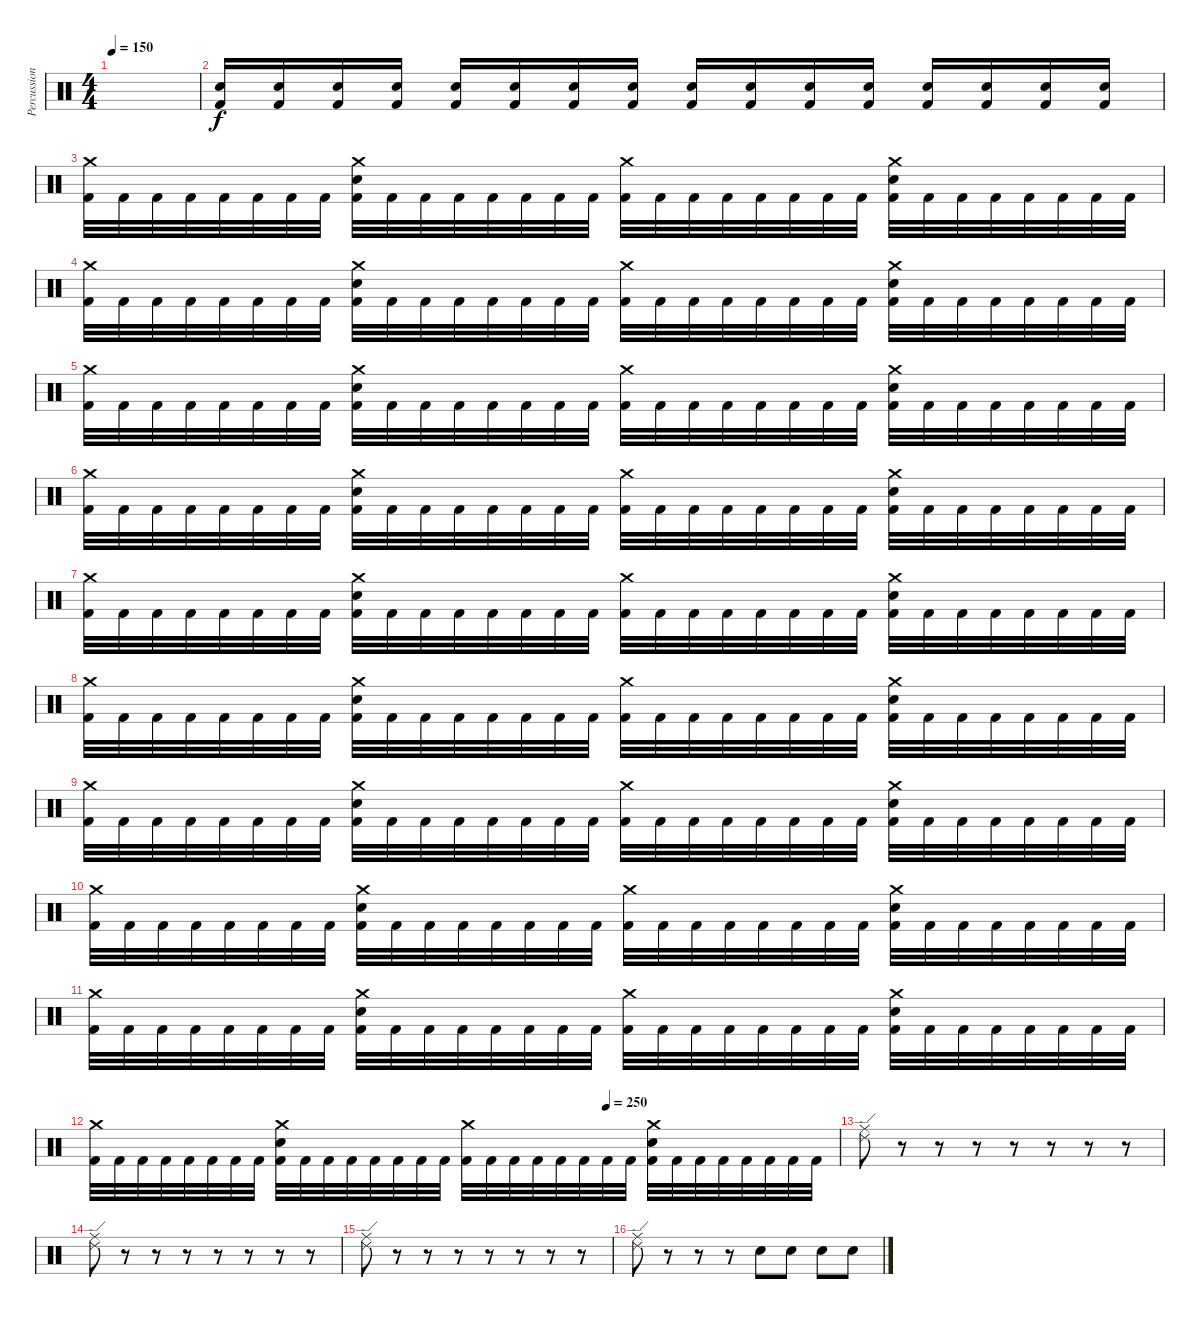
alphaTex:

\track ("Percussions" "Percussion") {instrument percussion}
\staff {score}
\articulation defaults
\ts (4 4)
\tempo 150
\clef neutral
\ks c
|
("Electric Snare (hit)" "Kick (hit) 2").16 ("Electric Snare (hit)" "Kick (hit) 2").16 ("Electric Snare (hit)" "Kick (hit) 2").16 ("Electric Snare (hit)" "Kick (hit) 2").16 ("Electric Snare (hit)" "Kick (hit) 2").16 ("Electric Snare (hit)" "Kick (hit) 2").16 ("Electric Snare (hit)" "Kick (hit) 2").16 ("Electric Snare (hit)" "Kick (hit) 2").16 ("Electric Snare (hit)" "Kick (hit) 2").16 ("Electric Snare (hit)" "Kick (hit) 2").16 ("Electric Snare (hit)" "Kick (hit) 2").16 ("Electric Snare (hit)" "Kick (hit) 2").16 ("Electric Snare (hit)" "Kick (hit) 2").16 ("Electric Snare (hit)" "Kick (hit) 2").16 ("Electric Snare (hit)" "Kick (hit) 2").16 ("Electric Snare (hit)" "Kick (hit) 2").16 |
("Crash medium (hit)" "Kick (hit) 2").32 "Kick (hit) 2".32 "Kick (hit) 2".32 "Kick (hit) 2".32 "Kick (hit) 2".32 "Kick (hit) 2".32 "Kick (hit) 2".32 "Kick (hit) 2".32 ("Electric Snare (hit)" "Crash medium (hit)" "Kick (hit) 2").32 "Kick (hit) 2".32 "Kick (hit) 2".32 "Kick (hit) 2".32 "Kick (hit) 2".32 "Kick (hit) 2".32 "Kick (hit) 2".32 "Kick (hit) 2".32 ("Crash medium (hit)" "Kick (hit) 2").32 "Kick (hit) 2".32 "Kick (hit) 2".32 "Kick (hit) 2".32 "Kick (hit) 2".32 "Kick (hit) 2".32 "Kick (hit) 2".32 "Kick (hit) 2".32 ("Electric Snare (hit)" "Crash medium (hit)" "Kick (hit) 2").32 "Kick (hit) 2".32 "Kick (hit) 2".32 "Kick (hit) 2".32 "Kick (hit) 2".32 "Kick (hit) 2".32 "Kick (hit) 2".32 "Kick (hit) 2".32 |
("Crash medium (hit)" "Kick (hit) 2").32 "Kick (hit) 2".32 "Kick (hit) 2".32 "Kick (hit) 2".32 "Kick (hit) 2".32 "Kick (hit) 2".32 "Kick (hit) 2".32 "Kick (hit) 2".32 ("Electric Snare (hit)" "Crash medium (hit)" "Kick (hit) 2").32 "Kick (hit) 2".32 "Kick (hit) 2".32 "Kick (hit) 2".32 "Kick (hit) 2".32 "Kick (hit) 2".32 "Kick (hit) 2".32 "Kick (hit) 2".32 ("Crash medium (hit)" "Kick (hit) 2").32 "Kick (hit) 2".32 "Kick (hit) 2".32 "Kick (hit) 2".32 "Kick (hit) 2".32 "Kick (hit) 2".32 "Kick (hit) 2".32 "Kick (hit) 2".32 ("Electric Snare (hit)" "Crash medium (hit)" "Kick (hit) 2").32 "Kick (hit) 2".32 "Kick (hit) 2".32 "Kick (hit) 2".32 "Kick (hit) 2".32 "Kick (hit) 2".32 "Kick (hit) 2".32 "Kick (hit) 2".32 |
("Crash medium (hit)" "Kick (hit) 2").32 "Kick (hit) 2".32 "Kick (hit) 2".32 "Kick (hit) 2".32 "Kick (hit) 2".32 "Kick (hit) 2".32 "Kick (hit) 2".32 "Kick (hit) 2".32 ("Electric Snare (hit)" "Crash medium (hit)" "Kick (hit) 2").32 "Kick (hit) 2".32 "Kick (hit) 2".32 "Kick (hit) 2".32 "Kick (hit) 2".32 "Kick (hit) 2".32 "Kick (hit) 2".32 "Kick (hit) 2".32 ("Crash medium (hit)" "Kick (hit) 2").32 "Kick (hit) 2".32 "Kick (hit) 2".32 "Kick (hit) 2".32 "Kick (hit) 2".32 "Kick (hit) 2".32 "Kick (hit) 2".32 "Kick (hit) 2".32 ("Electric Snare (hit)" "Crash medium (hit)" "Kick (hit) 2").32 "Kick (hit) 2".32 "Kick (hit) 2".32 "Kick (hit) 2".32 "Kick (hit) 2".32 "Kick (hit) 2".32 "Kick (hit) 2".32 "Kick (hit) 2".32 |
("Crash medium (hit)" "Kick (hit) 2").32 "Kick (hit) 2".32 "Kick (hit) 2".32 "Kick (hit) 2".32 "Kick (hit) 2".32 "Kick (hit) 2".32 "Kick (hit) 2".32 "Kick (hit) 2".32 ("Electric Snare (hit)" "Crash medium (hit)" "Kick (hit) 2").32 "Kick (hit) 2".32 "Kick (hit) 2".32 "Kick (hit) 2".32 "Kick (hit) 2".32 "Kick (hit) 2".32 "Kick (hit) 2".32 "Kick (hit) 2".32 ("Crash medium (hit)" "Kick (hit) 2").32 "Kick (hit) 2".32 "Kick (hit) 2".32 "Kick (hit) 2".32 "Kick (hit) 2".32 "Kick (hit) 2".32 "Kick (hit) 2".32 "Kick (hit) 2".32 ("Electric Snare (hit)" "Crash medium (hit)" "Kick (hit) 2").32 "Kick (hit) 2".32 "Kick (hit) 2".32 "Kick (hit) 2".32 "Kick (hit) 2".32 "Kick (hit) 2".32 "Kick (hit) 2".32 "Kick (hit) 2".32 |
("Crash medium (hit)" "Kick (hit) 2").32 "Kick (hit) 2".32 "Kick (hit) 2".32 "Kick (hit) 2".32 "Kick (hit) 2".32 "Kick (hit) 2".32 "Kick (hit) 2".32 "Kick (hit) 2".32 ("Electric Snare (hit)" "Crash medium (hit)" "Kick (hit) 2").32 "Kick (hit) 2".32 "Kick (hit) 2".32 "Kick (hit) 2".32 "Kick (hit) 2".32 "Kick (hit) 2".32 "Kick (hit) 2".32 "Kick (hit) 2".32 ("Crash medium (hit)" "Kick (hit) 2").32 "Kick (hit) 2".32 "Kick (hit) 2".32 "Kick (hit) 2".32 "Kick (hit) 2".32 "Kick (hit) 2".32 "Kick (hit) 2".32 "Kick (hit) 2".32 ("Electric Snare (hit)" "Crash medium (hit)" "Kick (hit) 2").32 "Kick (hit) 2".32 "Kick (hit) 2".32 "Kick (hit) 2".32 "Kick (hit) 2".32 "Kick (hit) 2".32 "Kick (hit) 2".32 "Kick (hit) 2".32 |
("Crash medium (hit)" "Kick (hit) 2").32 "Kick (hit) 2".32 "Kick (hit) 2".32 "Kick (hit) 2".32 "Kick (hit) 2".32 "Kick (hit) 2".32 "Kick (hit) 2".32 "Kick (hit) 2".32 ("Electric Snare (hit)" "Crash medium (hit)" "Kick (hit) 2").32 "Kick (hit) 2".32 "Kick (hit) 2".32 "Kick (hit) 2".32 "Kick (hit) 2".32 "Kick (hit) 2".32 "Kick (hit) 2".32 "Kick (hit) 2".32 ("Crash medium (hit)" "Kick (hit) 2").32 "Kick (hit) 2".32 "Kick (hit) 2".32 "Kick (hit) 2".32 "Kick (hit) 2".32 "Kick (hit) 2".32 "Kick (hit) 2".32 "Kick (hit) 2".32 ("Electric Snare (hit)" "Crash medium (hit)" "Kick (hit) 2").32 "Kick (hit) 2".32 "Kick (hit) 2".32 "Kick (hit) 2".32 "Kick (hit) 2".32 "Kick (hit) 2".32 "Kick (hit) 2".32 "Kick (hit) 2".32 |
("Crash medium (hit)" "Kick (hit) 2").32 "Kick (hit) 2".32 "Kick (hit) 2".32 "Kick (hit) 2".32 "Kick (hit) 2".32 "Kick (hit) 2".32 "Kick (hit) 2".32 "Kick (hit) 2".32 ("Electric Snare (hit)" "Crash medium (hit)" "Kick (hit) 2").32 "Kick (hit) 2".32 "Kick (hit) 2".32 "Kick (hit) 2".32 "Kick (hit) 2".32 "Kick (hit) 2".32 "Kick (hit) 2".32 "Kick (hit) 2".32 ("Crash medium (hit)" "Kick (hit) 2").32 "Kick (hit) 2".32 "Kick (hit) 2".32 "Kick (hit) 2".32 "Kick (hit) 2".32 "Kick (hit) 2".32 "Kick (hit) 2".32 "Kick (hit) 2".32 ("Electric Snare (hit)" "Crash medium (hit)" "Kick (hit) 2").32 "Kick (hit) 2".32 "Kick (hit) 2".32 "Kick (hit) 2".32 "Kick (hit) 2".32 "Kick (hit) 2".32 "Kick (hit) 2".32 "Kick (hit) 2".32 |
("Crash medium (hit)" "Kick (hit) 2").32 "Kick (hit) 2".32 "Kick (hit) 2".32 "Kick (hit) 2".32 "Kick (hit) 2".32 "Kick (hit) 2".32 "Kick (hit) 2".32 "Kick (hit) 2".32 ("Electric Snare (hit)" "Crash medium (hit)" "Kick (hit) 2").32 "Kick (hit) 2".32 "Kick (hit) 2".32 "Kick (hit) 2".32 "Kick (hit) 2".32 "Kick (hit) 2".32 "Kick (hit) 2".32 "Kick (hit) 2".32 ("Crash medium (hit)" "Kick (hit) 2").32 "Kick (hit) 2".32 "Kick (hit) 2".32 "Kick (hit) 2".32 "Kick (hit) 2".32 "Kick (hit) 2".32 "Kick (hit) 2".32 "Kick (hit) 2".32 ("Electric Snare (hit)" "Crash medium (hit)" "Kick (hit) 2").32 "Kick (hit) 2".32 "Kick (hit) 2".32 "Kick (hit) 2".32 "Kick (hit) 2".32 "Kick (hit) 2".32 "Kick (hit) 2".32 "Kick (hit) 2".32 |
("Crash medium (hit)" "Kick (hit) 2").32 "Kick (hit) 2".32 "Kick (hit) 2".32 "Kick (hit) 2".32 "Kick (hit) 2".32 "Kick (hit) 2".32 "Kick (hit) 2".32 "Kick (hit) 2".32 ("Electric Snare (hit)" "Crash medium (hit)" "Kick (hit) 2").32 "Kick (hit) 2".32 "Kick (hit) 2".32 "Kick (hit) 2".32 "Kick (hit) 2".32 "Kick (hit) 2".32 "Kick (hit) 2".32 "Kick (hit) 2".32 ("Crash medium (hit)" "Kick (hit) 2").32 "Kick (hit) 2".32 "Kick (hit) 2".32 "Kick (hit) 2".32 "Kick (hit) 2".32 "Kick (hit) 2".32 "Kick (hit) 2".32 "Kick (hit) 2".32 ("Electric Snare (hit)" "Crash medium (hit)" "Kick (hit) 2").32 "Kick (hit) 2".32 "Kick (hit) 2".32 "Kick (hit) 2".32 "Kick (hit) 2".32 "Kick (hit) 2".32 "Kick (hit) 2".32 "Kick (hit) 2".32 |
\tempo (250 0.6875)
("Crash medium (hit)" "Kick (hit) 2").32 "Kick (hit) 2".32 "Kick (hit) 2".32 "Kick (hit) 2".32 "Kick (hit) 2".32 "Kick (hit) 2".32 "Kick (hit) 2".32 "Kick (hit) 2".32 ("Electric Snare (hit)" "Crash medium (hit)" "Kick (hit) 2").32 "Kick (hit) 2".32 "Kick (hit) 2".32 "Kick (hit) 2".32 "Kick (hit) 2".32 "Kick (hit) 2".32 "Kick (hit) 2".32 "Kick (hit) 2".32 ("Crash medium (hit)" "Kick (hit) 2").32 "Kick (hit) 2".32 "Kick (hit) 2".32 "Kick (hit) 2".32 "Kick (hit) 2".32 "Kick (hit) 2".32 "Kick (hit) 2".32 "Kick (hit) 2".32 ("Electric Snare (hit)" "Crash medium (hit)" "Kick (hit) 2").32 "Kick (hit) 2".32 "Kick (hit) 2".32 "Kick (hit) 2".32 "Kick (hit) 2".32 "Kick (hit) 2".32 "Kick (hit) 2".32 "Kick (hit) 2".32 |
("Ride (edge) 2" "Ride (middle)").8 r.8 r.8 r.8 r.8 r.8 r.8 r.8 |
("Ride (edge) 2" "Ride (middle)").8 r.8 r.8 r.8 r.8 r.8 r.8 r.8 |
("Ride (edge) 2" "Ride (middle)").8 r.8 r.8 r.8 r.8 r.8 r.8 r.8 |
("Ride (edge) 2" "Ride (middle)").8 r.8 r.8 r.8 "Electric Snare (hit)".8 "Electric Snare (hit)".8 "Electric Snare (hit)".8 "Electric Snare (hit)".8
